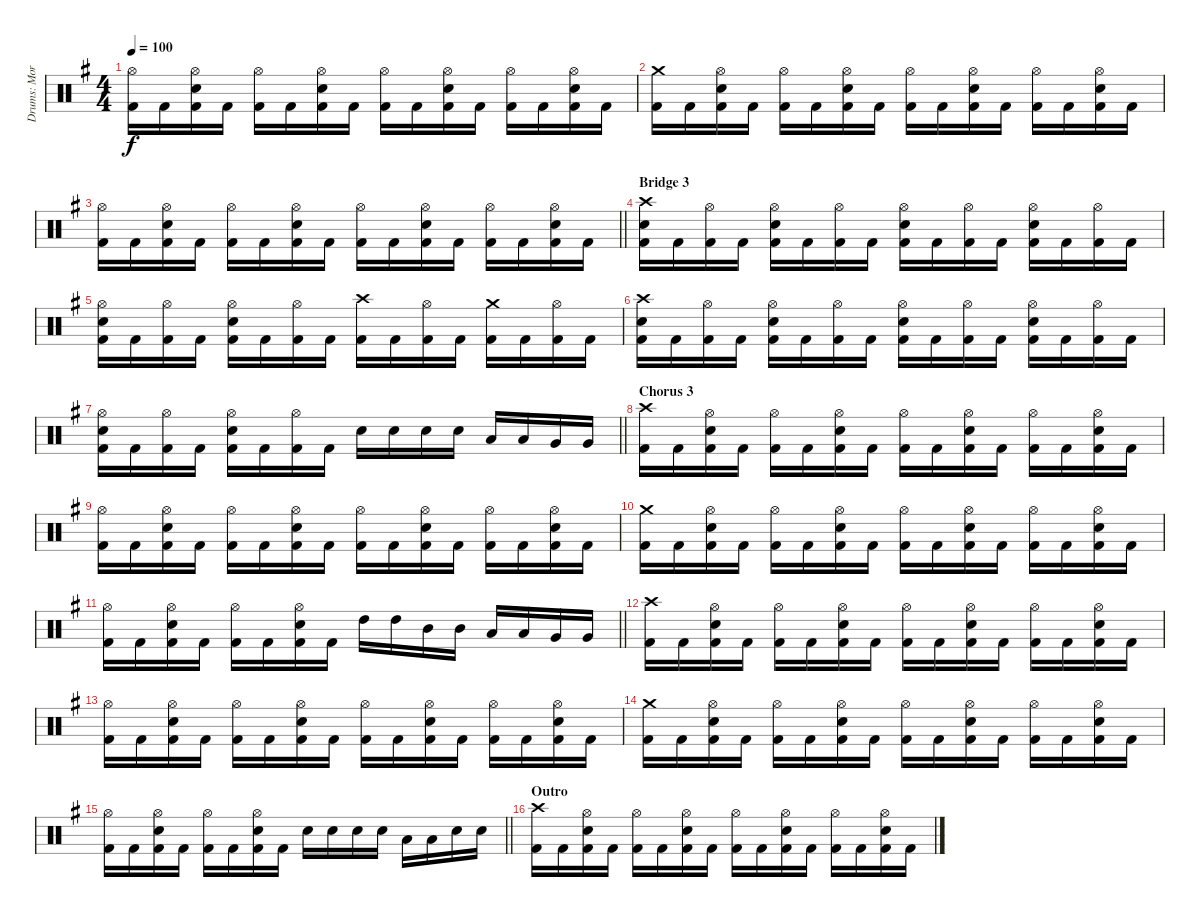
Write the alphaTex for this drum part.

\track ("Drums: Morten Færøvig" "Drums: Mor") {instrument percussion}
\staff {score}
\articulation defaults
\ts (4 4)
\tempo 100
\clef neutral
\ks eminor
("Hi-Hat (open)" "Kick (hit) 2").16{dy f} "Kick (hit) 2".16 ("Hi-Hat (open)" "Electric Snare (hit)" "Kick (hit) 2").16 "Kick (hit) 2".16 ("Hi-Hat (open)" "Kick (hit) 2").16 "Kick (hit) 2".16 ("Hi-Hat (open)" "Electric Snare (hit)" "Kick (hit) 2").16 "Kick (hit) 2".16 ("Hi-Hat (open)" "Kick (hit) 2").16 "Kick (hit) 2".16 ("Hi-Hat (open)" "Electric Snare (hit)" "Kick (hit) 2").16 "Kick (hit) 2".16 ("Hi-Hat (open)" "Kick (hit) 2").16 "Kick (hit) 2".16 ("Hi-Hat (open)" "Electric Snare (hit)" "Kick (hit) 2").16 "Kick (hit) 2".16 |
("Crash medium (hit)" "Kick (hit) 2").16 "Kick (hit) 2".16 ("Hi-Hat (open)" "Electric Snare (hit)" "Kick (hit) 2").16 "Kick (hit) 2".16 ("Hi-Hat (open)" "Kick (hit) 2").16 "Kick (hit) 2".16 ("Hi-Hat (open)" "Electric Snare (hit)" "Kick (hit) 2").16 "Kick (hit) 2".16 ("Hi-Hat (open)" "Kick (hit) 2").16 "Kick (hit) 2".16 ("Hi-Hat (open)" "Electric Snare (hit)" "Kick (hit) 2").16 "Kick (hit) 2".16 ("Hi-Hat (open)" "Kick (hit) 2").16 "Kick (hit) 2".16 ("Hi-Hat (open)" "Electric Snare (hit)" "Kick (hit) 2").16 "Kick (hit) 2".16 |
\barLineRight lightlight
("Hi-Hat (open)" "Kick (hit) 2").16 "Kick (hit) 2".16 ("Hi-Hat (open)" "Electric Snare (hit)" "Kick (hit) 2").16 "Kick (hit) 2".16 ("Hi-Hat (open)" "Kick (hit) 2").16 "Kick (hit) 2".16 ("Hi-Hat (open)" "Electric Snare (hit)" "Kick (hit) 2").16 "Kick (hit) 2".16 ("Hi-Hat (open)" "Kick (hit) 2").16 "Kick (hit) 2".16 ("Hi-Hat (open)" "Electric Snare (hit)" "Kick (hit) 2").16 "Kick (hit) 2".16 ("Hi-Hat (open)" "Kick (hit) 2").16 "Kick (hit) 2".16 ("Hi-Hat (open)" "Electric Snare (hit)" "Kick (hit) 2").16 "Kick (hit) 2".16 |
\section ("" "Bridge 3")
("Crash high (hit)" "Electric Snare (hit)" "Kick (hit) 2").16 "Kick (hit) 2".16 ("Hi-Hat (open)" "Kick (hit) 2").16 "Kick (hit) 2".16 ("Hi-Hat (open)" "Electric Snare (hit)" "Kick (hit) 2").16 "Kick (hit) 2".16 ("Hi-Hat (open)" "Kick (hit) 2").16 "Kick (hit) 2".16 ("Hi-Hat (open)" "Electric Snare (hit)" "Kick (hit) 2").16 "Kick (hit) 2".16 ("Hi-Hat (open)" "Kick (hit) 2").16 "Kick (hit) 2".16 ("Hi-Hat (open)" "Electric Snare (hit)" "Kick (hit) 2").16 "Kick (hit) 2".16 ("Hi-Hat (open)" "Kick (hit) 2").16 "Kick (hit) 2".16 |
("Hi-Hat (open)" "Electric Snare (hit)" "Kick (hit) 2").16 "Kick (hit) 2".16 ("Hi-Hat (open)" "Kick (hit) 2").16 "Kick (hit) 2".16 ("Hi-Hat (open)" "Electric Snare (hit)" "Kick (hit) 2").16 "Kick (hit) 2".16 ("Hi-Hat (open)" "Kick (hit) 2").16 "Kick (hit) 2".16 ("Crash high (hit)" "Kick (hit) 2").16 "Kick (hit) 2".16 ("Hi-Hat (open)" "Kick (hit) 2").16 "Kick (hit) 2".16 ("Crash medium (hit)" "Kick (hit) 2").16 "Kick (hit) 2".16 ("Hi-Hat (open)" "Kick (hit) 2").16 "Kick (hit) 2".16 |
("Crash high (hit)" "Electric Snare (hit)" "Kick (hit) 2").16 "Kick (hit) 2".16 ("Hi-Hat (open)" "Kick (hit) 2").16 "Kick (hit) 2".16 ("Hi-Hat (open)" "Electric Snare (hit)" "Kick (hit) 2").16 "Kick (hit) 2".16 ("Hi-Hat (open)" "Kick (hit) 2").16 "Kick (hit) 2".16 ("Hi-Hat (open)" "Electric Snare (hit)" "Kick (hit) 2").16 "Kick (hit) 2".16 ("Hi-Hat (open)" "Kick (hit) 2").16 "Kick (hit) 2".16 ("Hi-Hat (open)" "Electric Snare (hit)" "Kick (hit) 2").16 "Kick (hit) 2".16 ("Hi-Hat (open)" "Kick (hit) 2").16 "Kick (hit) 2".16 |
\barLineRight lightlight
("Hi-Hat (open)" "Electric Snare (hit)" "Kick (hit) 2").16 "Kick (hit) 2".16 ("Hi-Hat (open)" "Kick (hit) 2").16 "Kick (hit) 2".16 ("Hi-Hat (open)" "Electric Snare (hit)" "Kick (hit) 2").16 "Kick (hit) 2".16 ("Hi-Hat (open)" "Kick (hit) 2").16 "Kick (hit) 2".16 "Electric Snare (hit)".16 "Electric Snare (hit)".16 "Electric Snare (hit)".16 "Electric Snare (hit)".16 "Low Tom (hit)".16 "Low Tom (hit)".16 "Very Low Tom (hit)".16 "Very Low Tom (hit)".16 |
\section ("" "Chorus 3")
("Crash high (hit)" "Kick (hit) 2").16 "Kick (hit) 2".16 ("Hi-Hat (open)" "Electric Snare (hit)" "Kick (hit) 2").16 "Kick (hit) 2".16 ("Hi-Hat (open)" "Kick (hit) 2").16 "Kick (hit) 2".16 ("Hi-Hat (open)" "Electric Snare (hit)" "Kick (hit) 2").16 "Kick (hit) 2".16 ("Hi-Hat (open)" "Kick (hit) 2").16 "Kick (hit) 2".16 ("Hi-Hat (open)" "Electric Snare (hit)" "Kick (hit) 2").16 "Kick (hit) 2".16 ("Hi-Hat (open)" "Kick (hit) 2").16 "Kick (hit) 2".16 ("Hi-Hat (open)" "Electric Snare (hit)" "Kick (hit) 2").16 "Kick (hit) 2".16 |
("Hi-Hat (open)" "Kick (hit) 2").16 "Kick (hit) 2".16 ("Hi-Hat (open)" "Electric Snare (hit)" "Kick (hit) 2").16 "Kick (hit) 2".16 ("Hi-Hat (open)" "Kick (hit) 2").16 "Kick (hit) 2".16 ("Hi-Hat (open)" "Electric Snare (hit)" "Kick (hit) 2").16 "Kick (hit) 2".16 ("Hi-Hat (open)" "Kick (hit) 2").16 "Kick (hit) 2".16 ("Hi-Hat (open)" "Electric Snare (hit)" "Kick (hit) 2").16 "Kick (hit) 2".16 ("Hi-Hat (open)" "Kick (hit) 2").16 "Kick (hit) 2".16 ("Hi-Hat (open)" "Electric Snare (hit)" "Kick (hit) 2").16 "Kick (hit) 2".16 |
("Crash medium (hit)" "Kick (hit) 2").16 "Kick (hit) 2".16 ("Hi-Hat (open)" "Electric Snare (hit)" "Kick (hit) 2").16 "Kick (hit) 2".16 ("Hi-Hat (open)" "Kick (hit) 2").16 "Kick (hit) 2".16 ("Hi-Hat (open)" "Electric Snare (hit)" "Kick (hit) 2").16 "Kick (hit) 2".16 ("Hi-Hat (open)" "Kick (hit) 2").16 "Kick (hit) 2".16 ("Hi-Hat (open)" "Electric Snare (hit)" "Kick (hit) 2").16 "Kick (hit) 2".16 ("Hi-Hat (open)" "Kick (hit) 2").16 "Kick (hit) 2".16 ("Hi-Hat (open)" "Electric Snare (hit)" "Kick (hit) 2").16 "Kick (hit) 2".16 |
\barLineRight lightlight
("Hi-Hat (open)" "Kick (hit) 2").16 "Kick (hit) 2".16 ("Hi-Hat (open)" "Electric Snare (hit)" "Kick (hit) 2").16 "Kick (hit) 2".16 ("Hi-Hat (open)" "Kick (hit) 2").16 "Kick (hit) 2".16 ("Hi-Hat (open)" "Electric Snare (hit)" "Kick (hit) 2").16 "Kick (hit) 2".16 "High Tom (hit)".16 "High Tom (hit)".16 "Mid Tom (hit)".16 "Mid Tom (hit)".16 "Low Tom (hit)".16 "Low Tom (hit)".16 "Very Low Tom (hit)".16 "Very Low Tom (hit)".16 |
("Crash high (hit)" "Kick (hit) 2").16 "Kick (hit) 2".16 ("Hi-Hat (open)" "Electric Snare (hit)" "Kick (hit) 2").16 "Kick (hit) 2".16 ("Hi-Hat (open)" "Kick (hit) 2").16 "Kick (hit) 2".16 ("Hi-Hat (open)" "Electric Snare (hit)" "Kick (hit) 2").16 "Kick (hit) 2".16 ("Hi-Hat (open)" "Kick (hit) 2").16 "Kick (hit) 2".16 ("Hi-Hat (open)" "Electric Snare (hit)" "Kick (hit) 2").16 "Kick (hit) 2".16 ("Hi-Hat (open)" "Kick (hit) 2").16 "Kick (hit) 2".16 ("Hi-Hat (open)" "Electric Snare (hit)" "Kick (hit) 2").16 "Kick (hit) 2".16 |
("Hi-Hat (open)" "Kick (hit) 2").16 "Kick (hit) 2".16 ("Hi-Hat (open)" "Electric Snare (hit)" "Kick (hit) 2").16 "Kick (hit) 2".16 ("Hi-Hat (open)" "Kick (hit) 2").16 "Kick (hit) 2".16 ("Hi-Hat (open)" "Electric Snare (hit)" "Kick (hit) 2").16 "Kick (hit) 2".16 ("Hi-Hat (open)" "Kick (hit) 2").16 "Kick (hit) 2".16 ("Hi-Hat (open)" "Electric Snare (hit)" "Kick (hit) 2").16 "Kick (hit) 2".16 ("Hi-Hat (open)" "Kick (hit) 2").16 "Kick (hit) 2".16 ("Hi-Hat (open)" "Electric Snare (hit)" "Kick (hit) 2").16 "Kick (hit) 2".16 |
("Crash medium (hit)" "Kick (hit) 2").16 "Kick (hit) 2".16 ("Hi-Hat (open)" "Electric Snare (hit)" "Kick (hit) 2").16 "Kick (hit) 2".16 ("Hi-Hat (open)" "Kick (hit) 2").16 "Kick (hit) 2".16 ("Hi-Hat (open)" "Electric Snare (hit)" "Kick (hit) 2").16 "Kick (hit) 2".16 ("Hi-Hat (open)" "Kick (hit) 2").16 "Kick (hit) 2".16 ("Hi-Hat (open)" "Electric Snare (hit)" "Kick (hit) 2").16 "Kick (hit) 2".16 ("Hi-Hat (open)" "Kick (hit) 2").16 "Kick (hit) 2".16 ("Hi-Hat (open)" "Electric Snare (hit)" "Kick (hit) 2").16 "Kick (hit) 2".16 |
\barLineRight lightlight
("Hi-Hat (open)" "Kick (hit) 2").16 "Kick (hit) 2".16 ("Hi-Hat (open)" "Electric Snare (hit)" "Kick (hit) 2").16 "Kick (hit) 2".16 ("Hi-Hat (open)" "Kick (hit) 2").16 "Kick (hit) 2".16 ("Hi-Hat (open)" "Electric Snare (hit)" "Kick (hit) 2").16 "Kick (hit) 2".16 "Electric Snare (hit)".16 "Electric Snare (hit)".16 "Electric Snare (hit)".16 "Electric Snare (hit)".16 "Low Tom (hit)".16 "Low Tom (hit)".16 "Electric Snare (hit)".16 "Electric Snare (hit)".16 |
\section ("" "Outro")
("Crash high (hit)" "Kick (hit) 2").16 "Kick (hit) 2".16 ("Hi-Hat (open)" "Electric Snare (hit)" "Kick (hit) 2").16 "Kick (hit) 2".16 ("Hi-Hat (open)" "Kick (hit) 2").16 "Kick (hit) 2".16 ("Hi-Hat (open)" "Electric Snare (hit)" "Kick (hit) 2").16 "Kick (hit) 2".16 ("Hi-Hat (open)" "Kick (hit) 2").16 "Kick (hit) 2".16 ("Hi-Hat (open)" "Electric Snare (hit)" "Kick (hit) 2").16 "Kick (hit) 2".16 ("Hi-Hat (open)" "Kick (hit) 2").16 "Kick (hit) 2".16 ("Hi-Hat (open)" "Electric Snare (hit)" "Kick (hit) 2").16 "Kick (hit) 2".16
